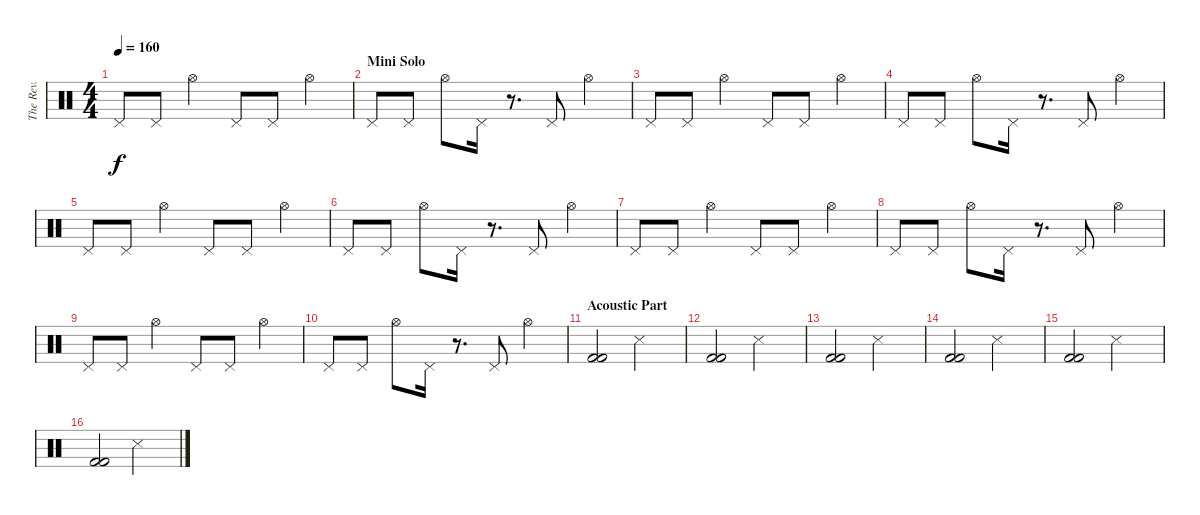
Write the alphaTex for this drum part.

\track ("The Rev." "The Rev.") {instrument percussion}
\staff {score}
\articulation defaults
\ts (4 4)
\tempo 160
\clef neutral
\ks c "Pedal Hi-Hat (hit)".8{dy f} "Pedal Hi-Hat (hit)".8 "Hi-Hat (open)".4 "Pedal Hi-Hat (hit)".8 "Pedal Hi-Hat (hit)".8 "Hi-Hat (open)".4
|
\section ("" "Mini Solo")
"Pedal Hi-Hat (hit)".8 "Pedal Hi-Hat (hit)".8 "Hi-Hat (open)".8 "Pedal Hi-Hat (hit)".16 r.8{d} "Pedal Hi-Hat (hit)".8 "Hi-Hat (open)".4 |
"Pedal Hi-Hat (hit)".8 "Pedal Hi-Hat (hit)".8 "Hi-Hat (open)".4 "Pedal Hi-Hat (hit)".8 "Pedal Hi-Hat (hit)".8 "Hi-Hat (open)".4 |
"Pedal Hi-Hat (hit)".8 "Pedal Hi-Hat (hit)".8 "Hi-Hat (open)".8 "Pedal Hi-Hat (hit)".16 r.8{d} "Pedal Hi-Hat (hit)".8 "Hi-Hat (open)".4 |
"Pedal Hi-Hat (hit)".8 "Pedal Hi-Hat (hit)".8 "Hi-Hat (open)".4 "Pedal Hi-Hat (hit)".8 "Pedal Hi-Hat (hit)".8 "Hi-Hat (open)".4 |
"Pedal Hi-Hat (hit)".8 "Pedal Hi-Hat (hit)".8 "Hi-Hat (open)".8 "Pedal Hi-Hat (hit)".16 r.8{d} "Pedal Hi-Hat (hit)".8 "Hi-Hat (open)".4 |
"Pedal Hi-Hat (hit)".8 "Pedal Hi-Hat (hit)".8 "Hi-Hat (open)".4 "Pedal Hi-Hat (hit)".8 "Pedal Hi-Hat (hit)".8 "Hi-Hat (open)".4 |
"Pedal Hi-Hat (hit)".8 "Pedal Hi-Hat (hit)".8 "Hi-Hat (open)".8 "Pedal Hi-Hat (hit)".16 r.8{d} "Pedal Hi-Hat (hit)".8 "Hi-Hat (open)".4 |
"Pedal Hi-Hat (hit)".8 "Pedal Hi-Hat (hit)".8 "Hi-Hat (open)".4 "Pedal Hi-Hat (hit)".8 "Pedal Hi-Hat (hit)".8 "Hi-Hat (open)".4 |
"Pedal Hi-Hat (hit)".8 "Pedal Hi-Hat (hit)".8 "Hi-Hat (open)".8 "Pedal Hi-Hat (hit)".16 r.8{d} "Pedal Hi-Hat (hit)".8 "Hi-Hat (open)".4 |
\section ("" "Acoustic Part")
("Kick (hit) 2" "Kick (hit) 2").2 "Metronome (hit)".2 |
("Kick (hit) 2" "Kick (hit) 2").2 "Metronome (hit)".2 |
("Kick (hit) 2" "Kick (hit) 2").2 "Metronome (hit)".2 |
("Kick (hit) 2" "Kick (hit) 2").2 "Metronome (hit)".2 |
("Kick (hit) 2" "Kick (hit) 2").2 "Metronome (hit)".2 |
("Kick (hit) 2" "Kick (hit) 2").2 "Metronome (hit)".2
